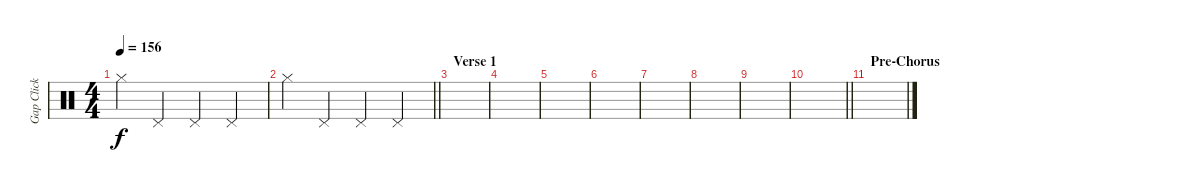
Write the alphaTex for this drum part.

\track ("Gap Click" "Gap Click") {instrument percussion}
\staff {score}
\articulation defaults
\ts (4 4)
\tempo 156
\clef neutral
\ks c "Hi-Hat (closed)".4{dy f} "Pedal Hi-Hat (hit)".4 "Pedal Hi-Hat (hit)".4 "Pedal Hi-Hat (hit)".4
|
\barLineRight lightlight "Hi-Hat (closed)".4 "Pedal Hi-Hat (hit)".4 "Pedal Hi-Hat (hit)".4 "Pedal Hi-Hat (hit)".4
|
\section ("" "Verse 1")
|
|
|
|
|
|
|
\barLineRight lightlight
|
\section ("" "Pre-Chorus")
